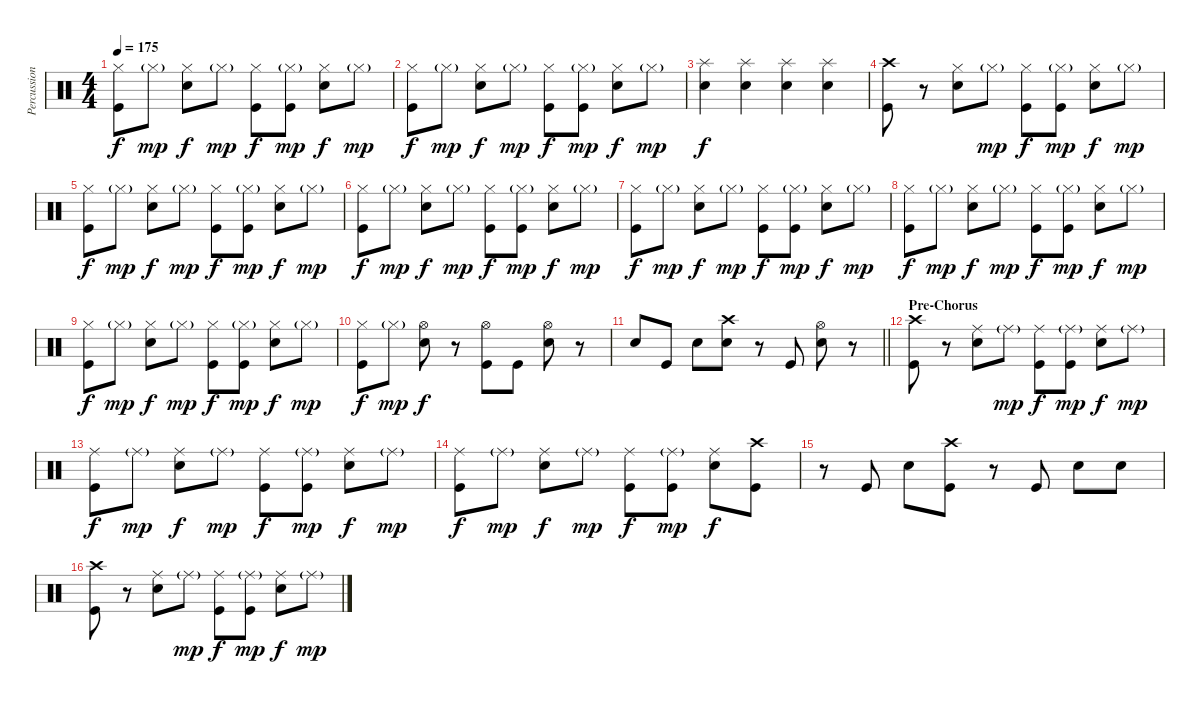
\track ("Percussion" "Percussion") {instrument percussion}
\staff {score}
\articulation defaults
\ts (4 4)
\tempo 175
\clef neutral
\ks c
("Hi-Hat (closed)" "Kick (hit)").8{dy f} "Hi-Hat (closed)"{g}.8{dy mp} ("Hi-Hat (closed)" "Snare (hit) 2").8{dy f} "Hi-Hat (closed)"{g}.8{dy mp} ("Hi-Hat (closed)" "Kick (hit)").8{dy f} ("Hi-Hat (closed)"{g} "Kick (hit)").8{dy mp} ("Hi-Hat (closed)" "Snare (hit) 2").8{dy f} "Hi-Hat (closed)"{g}.8{dy mp} |
("Hi-Hat (closed)" "Kick (hit)").8{dy f} "Hi-Hat (closed)"{g}.8{dy mp} ("Hi-Hat (closed)" "Snare (hit) 2").8{dy f} "Hi-Hat (closed)"{g}.8{dy mp} ("Hi-Hat (closed)" "Kick (hit)").8{dy f} ("Hi-Hat (closed)"{g} "Kick (hit)").8{dy mp} ("Hi-Hat (closed)" "Snare (hit) 2").8{dy f} "Hi-Hat (closed)"{g}.8{dy mp} |
("Splash (hit)" "Snare (hit) 2").4{dy f} ("Splash (hit)" "Snare (hit) 2").4 ("Splash (hit)" "Snare (hit) 2").4 ("Splash (hit)" "Snare (hit) 2").4 |
("Crash high (hit)" "Kick (hit)").8 r.8 ("Hi-Hat (closed)" "Snare (hit) 2").8 "Hi-Hat (closed)"{g}.8{dy mp} ("Hi-Hat (closed)" "Kick (hit)").8{dy f} ("Hi-Hat (closed)"{g} "Kick (hit)").8{dy mp} ("Hi-Hat (closed)" "Snare (hit) 2").8{dy f} "Hi-Hat (closed)"{g}.8{dy mp} |
("Hi-Hat (closed)" "Kick (hit)").8{dy f} "Hi-Hat (closed)"{g}.8{dy mp} ("Hi-Hat (closed)" "Snare (hit) 2").8{dy f} "Hi-Hat (closed)"{g}.8{dy mp} ("Hi-Hat (closed)" "Kick (hit)").8{dy f} ("Hi-Hat (closed)"{g} "Kick (hit)").8{dy mp} ("Hi-Hat (closed)" "Snare (hit) 2").8{dy f} "Hi-Hat (closed)"{g}.8{dy mp} |
("Hi-Hat (closed)" "Kick (hit)").8{dy f} "Hi-Hat (closed)"{g}.8{dy mp} ("Hi-Hat (closed)" "Snare (hit) 2").8{dy f} "Hi-Hat (closed)"{g}.8{dy mp} ("Hi-Hat (closed)" "Kick (hit)").8{dy f} ("Hi-Hat (closed)"{g} "Kick (hit)").8{dy mp} ("Hi-Hat (closed)" "Snare (hit) 2").8{dy f} "Hi-Hat (closed)"{g}.8{dy mp} |
("Hi-Hat (closed)" "Kick (hit)").8{dy f} "Hi-Hat (closed)"{g}.8{dy mp} ("Hi-Hat (closed)" "Snare (hit) 2").8{dy f} "Hi-Hat (closed)"{g}.8{dy mp} ("Hi-Hat (closed)" "Kick (hit)").8{dy f} ("Hi-Hat (closed)"{g} "Kick (hit)").8{dy mp} ("Hi-Hat (closed)" "Snare (hit) 2").8{dy f} "Hi-Hat (closed)"{g}.8{dy mp} |
("Hi-Hat (closed)" "Kick (hit)").8{dy f} "Hi-Hat (closed)"{g}.8{dy mp} ("Hi-Hat (closed)" "Snare (hit) 2").8{dy f} "Hi-Hat (closed)"{g}.8{dy mp} ("Hi-Hat (closed)" "Kick (hit)").8{dy f} ("Hi-Hat (closed)"{g} "Kick (hit)").8{dy mp} ("Hi-Hat (closed)" "Snare (hit) 2").8{dy f} "Hi-Hat (closed)"{g}.8{dy mp} |
("Hi-Hat (closed)" "Kick (hit)").8{dy f} "Hi-Hat (closed)"{g}.8{dy mp} ("Hi-Hat (closed)" "Snare (hit) 2").8{dy f} "Hi-Hat (closed)"{g}.8{dy mp} ("Hi-Hat (closed)" "Kick (hit)").8{dy f} ("Hi-Hat (closed)"{g} "Kick (hit)").8{dy mp} ("Hi-Hat (closed)" "Snare (hit) 2").8{dy f} "Hi-Hat (closed)"{g}.8{dy mp} |
("Hi-Hat (closed)" "Kick (hit)").8{dy f} "Hi-Hat (closed)"{g}.8{dy mp} ("Hi-Hat (open)" "Snare (hit) 2").8{dy f} r.8 ("Hi-Hat (open)" "Kick (hit)").8 "Kick (hit)".8 ("Hi-Hat (open)" "Snare (hit) 2").8 r.8 |
\barLineRight lightlight "Snare (hit) 2".8 "Kick (hit)".8 "Snare (hit) 2".8
("Crash high (hit)" "Snare (hit) 2").8 r.8 "Kick (hit)".8 ("Hi-Hat (open)" "Snare (hit) 2").8 r.8 |
\section ("" "Pre-Chorus")
("Crash high (hit)" "Kick (hit)").8 r.8 ("Ride (middle)" "Snare (hit) 2").8 "Ride (middle)"{g}.8{dy mp} ("Ride (middle)" "Kick (hit)").8{dy f} ("Ride (middle)"{g} "Kick (hit)").8{dy mp} ("Ride (middle)" "Snare (hit) 2").8{dy f} "Ride (middle)"{g}.8{dy mp} |
("Ride (middle)" "Kick (hit)").8{dy f} "Ride (middle)"{g}.8{dy mp} ("Ride (middle)" "Snare (hit) 2").8{dy f} "Ride (middle)"{g}.8{dy mp} ("Ride (middle)" "Kick (hit)").8{dy f} ("Ride (middle)"{g} "Kick (hit)").8{dy mp} ("Ride (middle)" "Snare (hit) 2").8{dy f} "Ride (middle)"{g}.8{dy mp} |
("Ride (middle)" "Kick (hit)").8{dy f} "Ride (middle)"{g}.8{dy mp} ("Ride (middle)" "Snare (hit) 2").8{dy f} "Ride (middle)"{g}.8{dy mp} ("Ride (middle)" "Kick (hit)").8{dy f} ("Ride (middle)"{g} "Kick (hit)").8{dy mp} ("Ride (middle)" "Snare (hit) 2").8{dy f} ("Crash high (hit)" "Kick (hit)").8 |
r.8 "Kick (hit)".8 "Snare (hit) 2".8 ("Crash high (hit)" "Kick (hit)").8 r.8 "Kick (hit)".8 "Snare (hit) 2".8 "Snare (hit) 2".8 |
("Crash high (hit)" "Kick (hit)").8 r.8 ("Ride (middle)" "Snare (hit) 2").8 "Ride (middle)"{g}.8{dy mp} ("Ride (middle)" "Kick (hit)").8{dy f} ("Ride (middle)"{g} "Kick (hit)").8{dy mp} ("Ride (middle)" "Snare (hit) 2").8{dy f} "Ride (middle)"{g}.8{dy mp}
